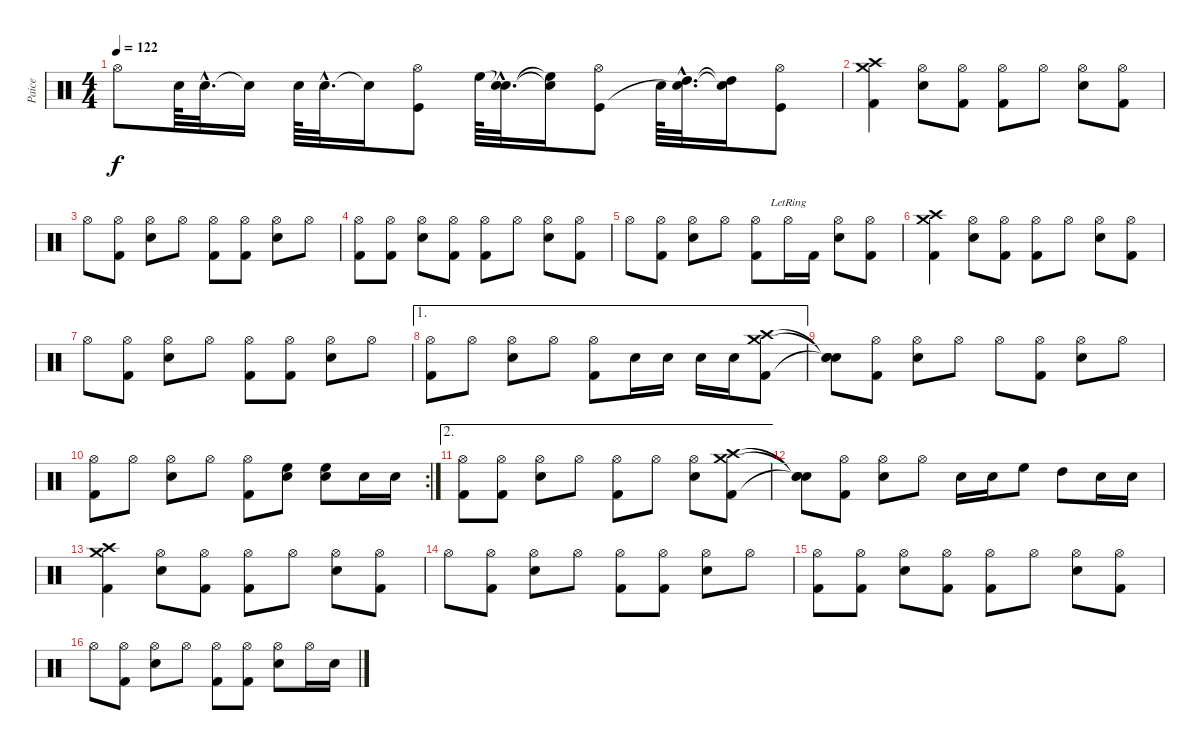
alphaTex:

\track ("Paice" "Paice") {instrument percussion}
\staff {score}
\articulation defaults
\ts (4 4)
\tempo 122
\clef neutral
\ks c "Hi-Hat (open)".8{dy f} "Snare (hit) 2".64 "Snare (hit) 2"{hac}.32{d} "Snare (hit)"{t}.16 "Snare (hit) 2".64 "Snare (hit) 2"{hac}.32{d} "Snare (hit)"{t}.16
("Hi-Hat (open)" "Kick (hit)").8 "High Floor Tom (hit)".64 ("Snare (hit)"{hac t} "Snare (hit) 2"{hac}).32{d} ("High Floor Tom (hit)"{t} "Snare (hit) 2"{t}).16 ("Hi-Hat (open)" "Kick (hit)").8 "Snare (hit) 2".64 ("High Tom (hit)"{hac} "Snare (hit)"{hac t}).32{d} ("High Tom (hit)"{t} "Snare (hit) 2"{t}).16 ("Hi-Hat (open)" "Kick (hit)").8 |
("Crash high (hit)" "Crash medium (hit)" "Kick (hit) 2").4 ("Hi-Hat (open)" "Electric Snare (hit)").8 ("Hi-Hat (open)" "Kick (hit) 2").8 ("Hi-Hat (open)" "Kick (hit) 2").8 "Hi-Hat (open)".8 ("Hi-Hat (open)" "Electric Snare (hit)").8 ("Hi-Hat (open)" "Kick (hit) 2").8 |
"Hi-Hat (open)".8 ("Hi-Hat (open)" "Kick (hit) 2").8 ("Hi-Hat (open)" "Electric Snare (hit)").8 "Hi-Hat (open)".8 ("Hi-Hat (open)" "Kick (hit) 2").8 ("Hi-Hat (open)" "Kick (hit) 2").8 ("Hi-Hat (open)" "Electric Snare (hit)").8 "Hi-Hat (open)".8 |
("Hi-Hat (open)" "Kick (hit) 2").8 ("Hi-Hat (open)" "Kick (hit) 2").8 ("Hi-Hat (open)" "Electric Snare (hit)").8 ("Hi-Hat (open)" "Kick (hit) 2").8 ("Hi-Hat (open)" "Kick (hit) 2").8 "Hi-Hat (open)".8 ("Hi-Hat (open)" "Electric Snare (hit)").8 ("Hi-Hat (open)" "Kick (hit) 2").8 |
"Hi-Hat (open)".8 ("Hi-Hat (open)" "Kick (hit) 2").8 ("Hi-Hat (open)" "Electric Snare (hit)").8 "Hi-Hat (open)".8 ("Hi-Hat (open)" "Kick (hit) 2").8 "Hi-Hat (open)"{lr}.16 "Kick (hit) 2".16 ("Hi-Hat (open)" "Electric Snare (hit)").8 ("Hi-Hat (open)" "Kick (hit) 2").8 |
("Crash high (hit)" "Crash medium (hit)" "Kick (hit) 2").4 ("Hi-Hat (open)" "Electric Snare (hit)").8 ("Hi-Hat (open)" "Kick (hit) 2").8 ("Hi-Hat (open)" "Kick (hit) 2").8 "Hi-Hat (open)".8 ("Hi-Hat (open)" "Electric Snare (hit)").8 ("Hi-Hat (open)" "Kick (hit) 2").8 |
"Hi-Hat (open)".8 ("Hi-Hat (open)" "Kick (hit) 2").8 ("Hi-Hat (open)" "Electric Snare (hit)").8 "Hi-Hat (open)".8 ("Hi-Hat (open)" "Kick (hit) 2").8 ("Hi-Hat (open)" "Kick (hit) 2").8 ("Hi-Hat (open)" "Electric Snare (hit)").8 "Hi-Hat (open)".8 |
\ae 1
("Hi-Hat (open)" "Kick (hit) 2").8 "Hi-Hat (open)".8 ("Hi-Hat (open)" "Electric Snare (hit)").8 "Hi-Hat (open)".8 ("Hi-Hat (open)" "Kick (hit) 2").8 "Electric Snare (hit)".16 "Electric Snare (hit)".16 "Electric Snare (hit)".16 "Electric Snare (hit)".16 ("Crash high (hit)" "Crash medium (hit)" "Kick (hit) 2").8 |
("Snare (hit)"{t} "Snare (hit)"{t} "Snare (hit)"{t}).8 ("Hi-Hat (open)" "Kick (hit) 2").8 ("Hi-Hat (open)" "Electric Snare (hit)").8 "Hi-Hat (open)".8 "Hi-Hat (open)".8 ("Hi-Hat (open)" "Kick (hit) 2").8 ("Hi-Hat (open)" "Electric Snare (hit)").8 "Hi-Hat (open)".8 |
\rc 2
("Hi-Hat (open)" "Kick (hit) 2").8 "Hi-Hat (open)".8 ("Hi-Hat (open)" "Electric Snare (hit)").8 "Hi-Hat (open)".8 ("Hi-Hat (open)" "Kick (hit) 2").8 ("High Floor Tom (hit)" "Electric Snare (hit)").8 ("High Floor Tom (hit)" "Electric Snare (hit)").8 "Electric Snare (hit)".16 "Electric Snare (hit)".16 |
\ae 2
("Hi-Hat (open)" "Kick (hit) 2").8 ("Hi-Hat (open)" "Kick (hit) 2").8 ("Hi-Hat (open)" "Electric Snare (hit)").8 "Hi-Hat (open)".8 ("Hi-Hat (open)" "Kick (hit) 2").8 "Hi-Hat (open)".8 ("Hi-Hat (open)" "Electric Snare (hit)").8 ("Crash high (hit)" "Crash medium (hit)" "Kick (hit) 2").8 |
("Snare (hit)"{t} "Snare (hit)"{t} "Snare (hit)"{t}).8 ("Hi-Hat (open)" "Kick (hit) 2").8 ("Hi-Hat (open)" "Electric Snare (hit)").8 "Hi-Hat (open)".8 "Electric Snare (hit)".16 "Electric Snare (hit)".16 "High Floor Tom (hit)".8 "High Tom (hit)".8 "Electric Snare (hit)".16 "Electric Snare (hit)".16 |
("Crash high (hit)" "Crash medium (hit)" "Kick (hit) 2").4 ("Hi-Hat (open)" "Electric Snare (hit)").8 ("Hi-Hat (open)" "Kick (hit) 2").8 ("Hi-Hat (open)" "Kick (hit) 2").8 "Hi-Hat (open)".8 ("Hi-Hat (open)" "Electric Snare (hit)").8 ("Hi-Hat (open)" "Kick (hit) 2").8 |
"Hi-Hat (open)".8 ("Hi-Hat (open)" "Kick (hit) 2").8 ("Hi-Hat (open)" "Electric Snare (hit)").8 "Hi-Hat (open)".8 ("Hi-Hat (open)" "Kick (hit) 2").8 ("Hi-Hat (open)" "Kick (hit) 2").8 ("Hi-Hat (open)" "Electric Snare (hit)").8 "Hi-Hat (open)".8 |
("Hi-Hat (open)" "Kick (hit) 2").8 ("Hi-Hat (open)" "Kick (hit) 2").8 ("Hi-Hat (open)" "Electric Snare (hit)").8 ("Hi-Hat (open)" "Kick (hit) 2").8 ("Hi-Hat (open)" "Kick (hit) 2").8 "Hi-Hat (open)".8 ("Hi-Hat (open)" "Electric Snare (hit)").8 ("Hi-Hat (open)" "Kick (hit) 2").8 |
"Hi-Hat (open)".8 ("Hi-Hat (open)" "Kick (hit) 2").8 ("Hi-Hat (open)" "Electric Snare (hit)").8 "Hi-Hat (open)".8 ("Hi-Hat (open)" "Kick (hit) 2").8 ("Hi-Hat (open)" "Kick (hit) 2").8 ("Hi-Hat (open)" "Electric Snare (hit)").8 "Hi-Hat (open)".16 "Electric Snare (hit)".16
